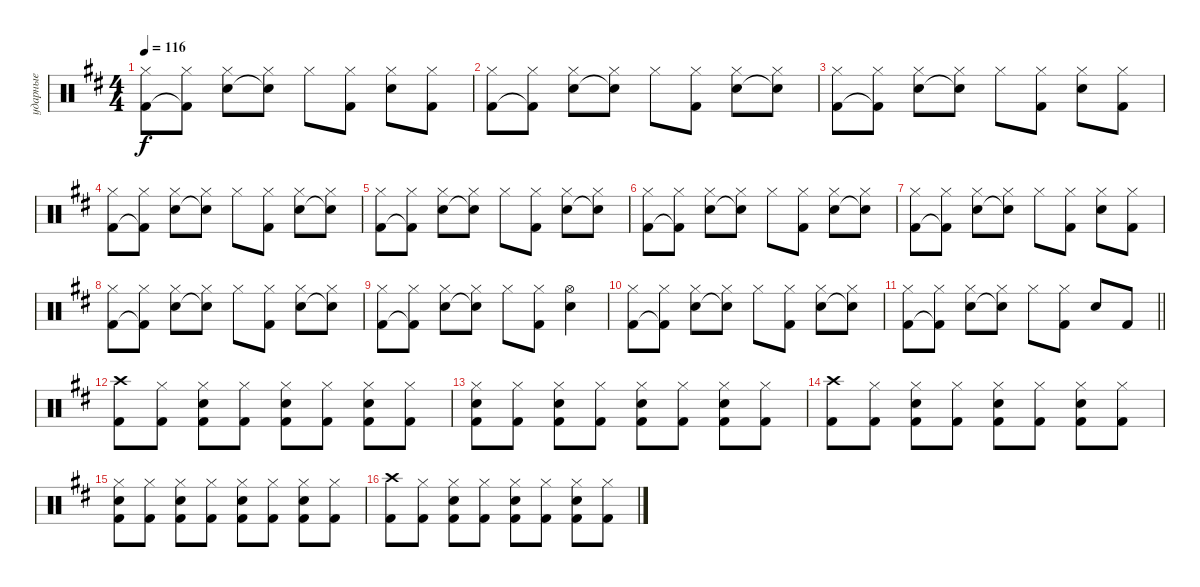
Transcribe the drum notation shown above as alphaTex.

\track ("ударные" "ударные") {instrument percussion}
\staff {score}
\articulation defaults
\ts (4 4)
\tempo 116
\clef neutral
\ks d
("Hi-Hat (closed)" "Kick (hit) 2").8{dy f} ("Hi-Hat (closed)" "Kick (hit) 2"{t}).8 ("Hi-Hat (closed)" "Snare (hit) 2").8 ("Hi-Hat (closed)" "Snare (hit) 2"{t}).8 "Hi-Hat (closed)".8 ("Hi-Hat (closed)" "Kick (hit) 2").8 ("Hi-Hat (closed)" "Snare (hit) 2").8 ("Hi-Hat (closed)" "Kick (hit) 2").8 |
("Hi-Hat (closed)" "Kick (hit) 2").8 ("Hi-Hat (closed)" "Kick (hit) 2"{t}).8 ("Hi-Hat (closed)" "Snare (hit) 2").8 ("Hi-Hat (closed)" "Snare (hit) 2"{t}).8 "Hi-Hat (closed)".8 ("Hi-Hat (closed)" "Kick (hit) 2").8 ("Hi-Hat (closed)" "Snare (hit) 2").8 ("Hi-Hat (closed)" "Snare (hit) 2"{t}).8 |
("Hi-Hat (closed)" "Kick (hit) 2").8 ("Hi-Hat (closed)" "Kick (hit) 2"{t}).8 ("Hi-Hat (closed)" "Snare (hit) 2").8 ("Hi-Hat (closed)" "Snare (hit) 2"{t}).8 "Hi-Hat (closed)".8 ("Hi-Hat (closed)" "Kick (hit) 2").8 ("Hi-Hat (closed)" "Snare (hit) 2").8 ("Hi-Hat (closed)" "Kick (hit) 2").8 |
("Hi-Hat (closed)" "Kick (hit) 2").8 ("Hi-Hat (closed)" "Kick (hit) 2"{t}).8 ("Hi-Hat (closed)" "Snare (hit) 2").8 ("Hi-Hat (closed)" "Snare (hit) 2"{t}).8 "Hi-Hat (closed)".8 ("Hi-Hat (closed)" "Kick (hit) 2").8 ("Hi-Hat (closed)" "Snare (hit) 2").8 ("Hi-Hat (closed)" "Snare (hit) 2"{t}).8 |
("Hi-Hat (closed)" "Kick (hit) 2").8 ("Hi-Hat (closed)" "Kick (hit) 2"{t}).8 ("Hi-Hat (closed)" "Snare (hit) 2").8 ("Hi-Hat (closed)" "Snare (hit) 2"{t}).8 "Hi-Hat (closed)".8 ("Hi-Hat (closed)" "Kick (hit) 2").8 ("Hi-Hat (closed)" "Snare (hit) 2").8 ("Hi-Hat (closed)" "Snare (hit) 2"{t}).8 |
("Hi-Hat (closed)" "Kick (hit) 2").8 ("Hi-Hat (closed)" "Kick (hit) 2"{t}).8 ("Hi-Hat (closed)" "Snare (hit) 2").8 ("Hi-Hat (closed)" "Snare (hit) 2"{t}).8 "Hi-Hat (closed)".8 ("Hi-Hat (closed)" "Kick (hit) 2").8 ("Hi-Hat (closed)" "Snare (hit) 2").8 ("Hi-Hat (closed)" "Snare (hit) 2"{t}).8 |
("Hi-Hat (closed)" "Kick (hit) 2").8 ("Hi-Hat (closed)" "Kick (hit) 2"{t}).8 ("Hi-Hat (closed)" "Snare (hit) 2").8 ("Hi-Hat (closed)" "Snare (hit) 2"{t}).8 "Hi-Hat (closed)".8 ("Hi-Hat (closed)" "Kick (hit) 2").8 ("Hi-Hat (closed)" "Snare (hit) 2").8 ("Hi-Hat (closed)" "Kick (hit) 2").8 |
("Hi-Hat (closed)" "Kick (hit) 2").8 ("Hi-Hat (closed)" "Kick (hit) 2"{t}).8 ("Hi-Hat (closed)" "Snare (hit) 2").8 ("Hi-Hat (closed)" "Snare (hit) 2"{t}).8 "Hi-Hat (closed)".8 ("Hi-Hat (closed)" "Kick (hit) 2").8 ("Hi-Hat (closed)" "Snare (hit) 2").8 ("Hi-Hat (closed)" "Snare (hit) 2"{t}).8 |
("Hi-Hat (closed)" "Kick (hit) 2").8 ("Hi-Hat (closed)" "Kick (hit) 2"{t}).8 ("Hi-Hat (closed)" "Snare (hit) 2").8 ("Hi-Hat (closed)" "Snare (hit) 2"{t}).8 "Hi-Hat (closed)".8 ("Hi-Hat (closed)" "Kick (hit) 2").8 ("Hi-Hat (open)" "Snare (hit) 2").4 |
("Hi-Hat (closed)" "Kick (hit) 2").8 ("Hi-Hat (closed)" "Kick (hit) 2"{t}).8 ("Hi-Hat (closed)" "Snare (hit) 2").8 ("Hi-Hat (closed)" "Snare (hit) 2"{t}).8 "Hi-Hat (closed)".8 ("Hi-Hat (closed)" "Kick (hit) 2").8 ("Hi-Hat (closed)" "Snare (hit) 2").8 ("Hi-Hat (closed)" "Snare (hit) 2"{t}).8 |
\barLineRight lightlight
("Hi-Hat (closed)" "Kick (hit) 2").8 ("Hi-Hat (closed)" "Kick (hit) 2"{t}).8 ("Hi-Hat (closed)" "Snare (hit) 2").8 ("Hi-Hat (closed)" "Snare (hit) 2"{t}).8 "Hi-Hat (closed)".8 ("Hi-Hat (closed)" "Kick (hit) 2").8 "Snare (hit) 2".8 "Kick (hit) 2".8 |
("Crash high (hit)" "Kick (hit) 2").8 ("Hi-Hat (closed)" "Kick (hit) 2").8 ("Hi-Hat (closed)" "Snare (hit) 2" "Kick (hit) 2").8 ("Hi-Hat (closed)" "Kick (hit) 2").8 ("Hi-Hat (closed)" "Snare (hit) 2" "Kick (hit) 2").8 ("Hi-Hat (closed)" "Kick (hit) 2").8 ("Hi-Hat (closed)" "Snare (hit) 2" "Kick (hit) 2").8 ("Hi-Hat (closed)" "Kick (hit) 2").8 |
("Hi-Hat (closed)" "Snare (hit) 2" "Kick (hit) 2").8 ("Hi-Hat (closed)" "Kick (hit) 2").8 ("Hi-Hat (closed)" "Snare (hit) 2" "Kick (hit) 2").8 ("Hi-Hat (closed)" "Kick (hit) 2").8 ("Hi-Hat (closed)" "Snare (hit) 2" "Kick (hit) 2").8 ("Hi-Hat (closed)" "Kick (hit) 2").8 ("Hi-Hat (closed)" "Snare (hit) 2" "Kick (hit) 2").8 ("Hi-Hat (closed)" "Kick (hit) 2").8 |
("Crash high (hit)" "Kick (hit) 2").8 ("Hi-Hat (closed)" "Kick (hit) 2").8 ("Hi-Hat (closed)" "Snare (hit) 2" "Kick (hit) 2").8 ("Hi-Hat (closed)" "Kick (hit) 2").8 ("Hi-Hat (closed)" "Snare (hit) 2" "Kick (hit) 2").8 ("Hi-Hat (closed)" "Kick (hit) 2").8 ("Hi-Hat (closed)" "Snare (hit) 2" "Kick (hit) 2").8 ("Hi-Hat (closed)" "Kick (hit) 2").8 |
("Hi-Hat (closed)" "Snare (hit) 2" "Kick (hit) 2").8 ("Hi-Hat (closed)" "Kick (hit) 2").8 ("Hi-Hat (closed)" "Snare (hit) 2" "Kick (hit) 2").8 ("Hi-Hat (closed)" "Kick (hit) 2").8 ("Hi-Hat (closed)" "Snare (hit) 2" "Kick (hit) 2").8 ("Hi-Hat (closed)" "Kick (hit) 2").8 ("Hi-Hat (closed)" "Snare (hit) 2" "Kick (hit) 2").8 ("Hi-Hat (closed)" "Kick (hit) 2").8 |
("Crash high (hit)" "Kick (hit) 2").8 ("Hi-Hat (closed)" "Kick (hit) 2").8 ("Hi-Hat (closed)" "Snare (hit) 2" "Kick (hit) 2").8 ("Hi-Hat (closed)" "Kick (hit) 2").8 ("Hi-Hat (closed)" "Snare (hit) 2" "Kick (hit) 2").8 ("Hi-Hat (closed)" "Kick (hit) 2").8 ("Hi-Hat (closed)" "Snare (hit) 2" "Kick (hit) 2").8 ("Hi-Hat (closed)" "Kick (hit) 2").8
